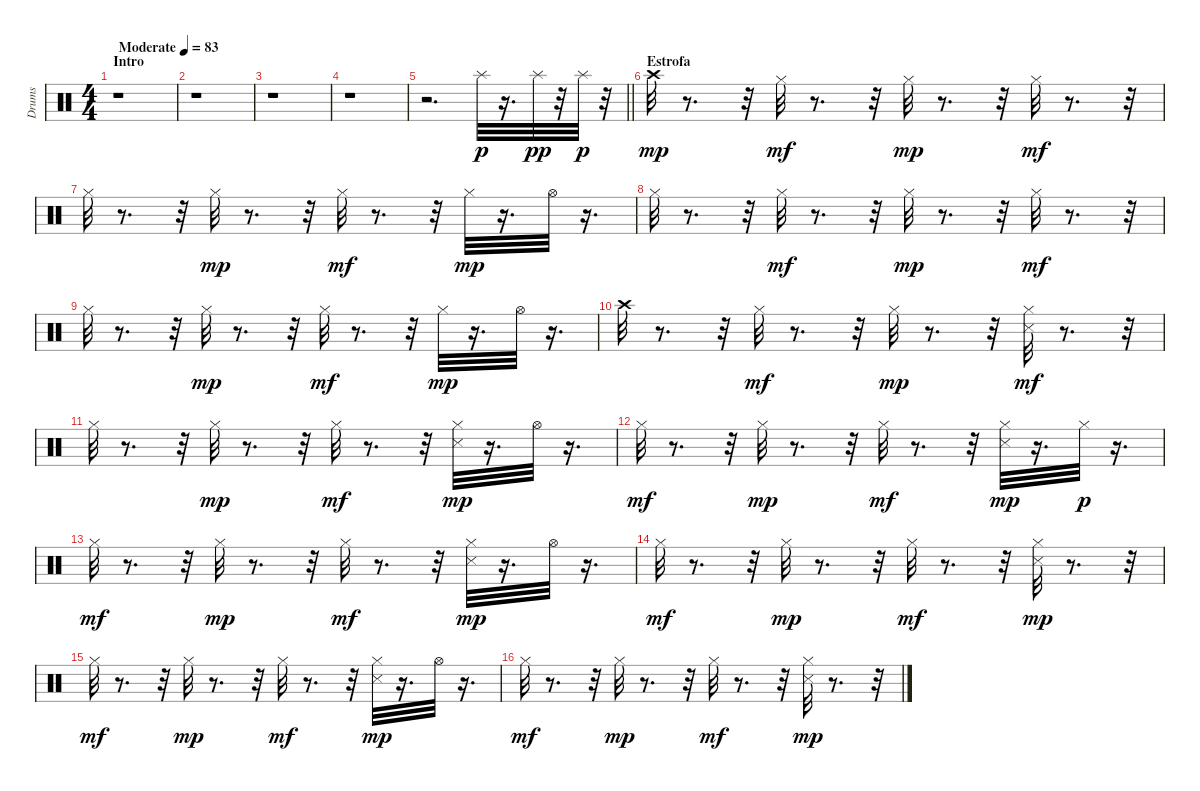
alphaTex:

\track ("Drums" "Drums") {instrument percussion}
\staff {score}
\articulation defaults
\ts (4 4)
\section ("" "Intro")
\tempo (83 "Moderate")
\clef neutral
\ks c
r.1{dy p} |
r.1 |
r.1 |
r.1 |
\barLineRight lightlight
r.2{d} "Splash (hit)".32 r.16{d} "Splash (hit)".32{dy pp} r.32 "Splash (hit)".32{dy p} r.32 |
\section ("" "Estrofa")
"Crash high (hit)".32{dy mp} r.8{d} r.32 "Hi-Hat (closed)".32{dy mf} r.8{d} r.32 "Hi-Hat (closed)".32{dy mp} r.8{d} r.32 "Hi-Hat (closed)".32{dy mf} r.8{d} r.32 |
"Hi-Hat (closed)".32 r.8{d} r.32 "Hi-Hat (closed)".32{dy mp} r.8{d} r.32 "Hi-Hat (closed)".32{dy mf} r.8{d} r.32 "Hi-Hat (closed)".32{dy mp} r.16{d} "Hi-Hat (open)".32 r.16{d} |
"Hi-Hat (closed)".32 r.8{d} r.32 "Hi-Hat (closed)".32{dy mf} r.8{d} r.32 "Hi-Hat (closed)".32{dy mp} r.8{d} r.32 "Hi-Hat (closed)".32{dy mf} r.8{d} r.32 |
"Hi-Hat (closed)".32 r.8{d} r.32 "Hi-Hat (closed)".32{dy mp} r.8{d} r.32 "Hi-Hat (closed)".32{dy mf} r.8{d} r.32 "Hi-Hat (closed)".32{dy mp} r.16{d} "Hi-Hat (open)".32 r.16{d} |
"Crash high (hit)".32 r.8{d} r.32 "Hi-Hat (closed)".32{dy mf} r.8{d} r.32 "Hi-Hat (closed)".32{dy mp} r.8{d} r.32 ("Snare (side stick) 3" "Hi-Hat (closed)").32{dy mf} r.8{d} r.32 |
"Hi-Hat (closed)".32 r.8{d} r.32 "Hi-Hat (closed)".32{dy mp} r.8{d} r.32 "Hi-Hat (closed)".32{dy mf} r.8{d} r.32 ("Snare (side stick) 3" "Hi-Hat (closed)").32{dy mp} r.16{d} "Hi-Hat (open)".32 r.16{d} |
"Hi-Hat (closed)".32{dy mf} r.8{d} r.32 "Hi-Hat (closed)".32{dy mp} r.8{d} r.32 "Hi-Hat (closed)".32{dy mf} r.8{d} r.32 ("Snare (side stick) 3" "Hi-Hat (closed)").32{dy mp} r.16{d} "Hi-Hat (closed)".32{dy p} r.16{d} |
"Hi-Hat (closed)".32{dy mf} r.8{d} r.32 "Hi-Hat (closed)".32{dy mp} r.8{d} r.32 "Hi-Hat (closed)".32{dy mf} r.8{d} r.32 ("Snare (side stick) 3" "Hi-Hat (closed)").32{dy mp} r.16{d} "Hi-Hat (open)".32 r.16{d} |
"Hi-Hat (closed)".32{dy mf} r.8{d} r.32 "Hi-Hat (closed)".32{dy mp} r.8{d} r.32 "Hi-Hat (closed)".32{dy mf} r.8{d} r.32 ("Snare (side stick) 3" "Hi-Hat (closed)").32{dy mp} r.8{d} r.32 |
"Hi-Hat (closed)".32{dy mf} r.8{d} r.32 "Hi-Hat (closed)".32{dy mp} r.8{d} r.32 "Hi-Hat (closed)".32{dy mf} r.8{d} r.32 ("Snare (side stick) 3" "Hi-Hat (closed)").32{dy mp} r.16{d} "Hi-Hat (open)".32 r.16{d} |
"Hi-Hat (closed)".32{dy mf} r.8{d} r.32 "Hi-Hat (closed)".32{dy mp} r.8{d} r.32 "Hi-Hat (closed)".32{dy mf} r.8{d} r.32 ("Snare (side stick) 3" "Hi-Hat (closed)").32{dy mp} r.8{d} r.32
